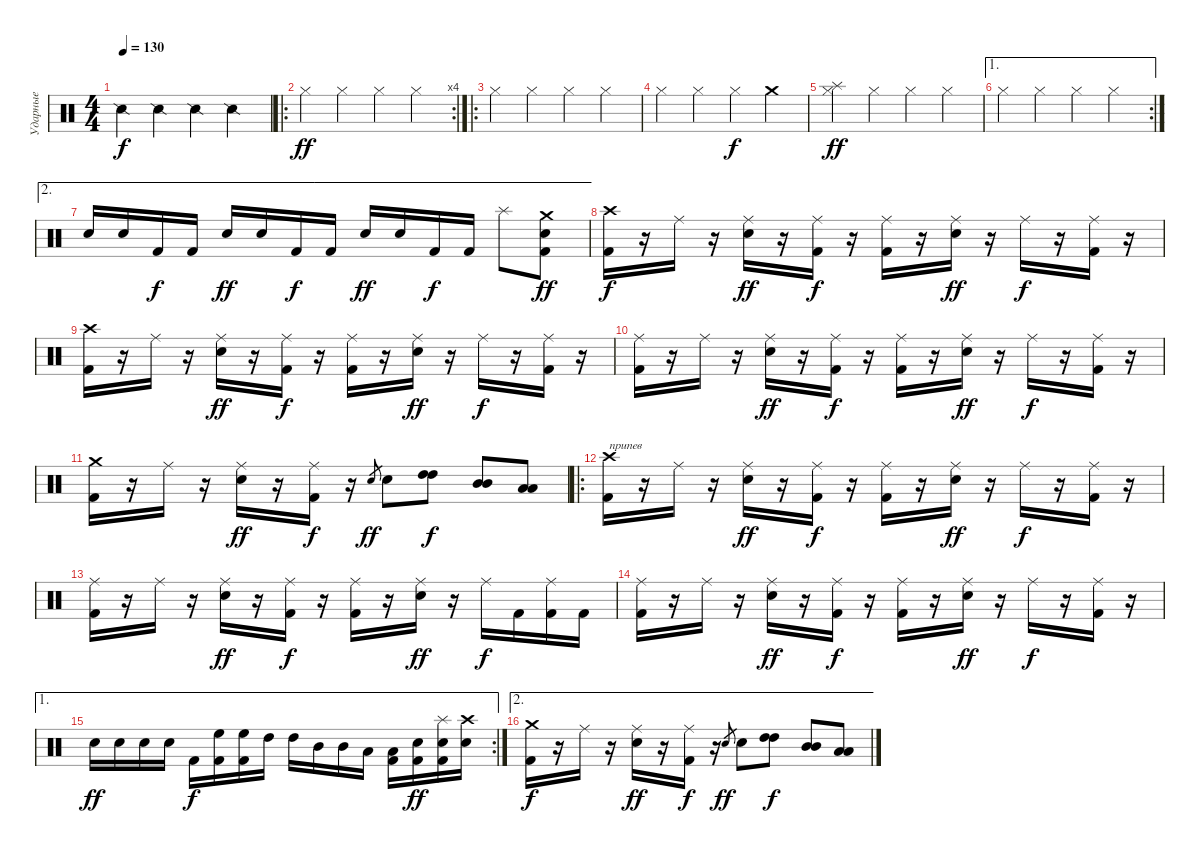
\track ("Ударные" "Ударные") {instrument percussion}
\staff {score}
\articulation defaults
\ts (4 4)
\tempo 130
\clef neutral
\ks c "Snare (side stick) 2".4{dy f} "Snare (side stick) 2".4 "Snare (side stick) 2".4 "Snare (side stick) 2".4
|
\ro
\rc 4 "Hi-Hat (closed)".4{dy ff} "Hi-Hat (closed)".4 "Hi-Hat (closed)".4 "Hi-Hat (closed)".4
|
\ro "Hi-Hat (closed)".4 "Hi-Hat (closed)".4 "Hi-Hat (closed)".4 "Hi-Hat (closed)".4
|
"Hi-Hat (closed)".4 "Hi-Hat (closed)".4 "Hi-Hat (closed)".4{dy f} "Crash medium (hit)".4 |
("Hi-Hat (closed)" "Splash (hit)").4{dy ff} "Hi-Hat (closed)".4 "Hi-Hat (closed)".4 "Hi-Hat (closed)".4 |
\ae 1
\rc 2 "Hi-Hat (closed)".4 "Hi-Hat (closed)".4 "Hi-Hat (closed)".4 "Hi-Hat (closed)".4
|
\ae 2 "Electric Snare (hit)".16 "Electric Snare (hit)".16 "Kick (hit) 2".16{dy f} "Kick (hit) 2".16 "Electric Snare (hit)".16{dy ff} "Electric Snare (hit)".16 "Kick (hit) 2".16{dy f} "Kick (hit) 2".16 "Electric Snare (hit)".16{dy ff} "Electric Snare (hit)".16 "Kick (hit) 2".16{dy f} "Kick (hit) 2".16 "Splash (hit)".8
("Electric Snare (hit)" "Kick (hit) 2" "Crash medium (hit)").8{dy ff} |
("Kick (hit) 2" "Crash high (hit)").16{dy f} r.16 "Ride (middle)".16 r.16 ("Electric Snare (hit)" "Ride (middle)").16{dy ff} r.16 ("Kick (hit) 2" "Ride (middle)").16{dy f} r.16 ("Kick (hit) 2" "Ride (middle)").16 r.16 ("Electric Snare (hit)" "Ride (middle)").16{dy ff} r.16 "Ride (middle)".16{dy f} r.16 ("Kick (hit) 2" "Ride (middle)").16 r.16 |
("Kick (hit) 2" "Crash high (hit)").16 r.16 "Ride (middle)".16 r.16 ("Electric Snare (hit)" "Ride (middle)").16{dy ff} r.16 ("Kick (hit) 2" "Ride (middle)").16{dy f} r.16 ("Kick (hit) 2" "Ride (middle)").16 r.16 ("Electric Snare (hit)" "Ride (middle)").16{dy ff} r.16 "Ride (middle)".16{dy f} r.16 ("Kick (hit) 2" "Ride (middle)").16 r.16 |
("Kick (hit) 2" "Ride (middle)").16 r.16 "Ride (middle)".16 r.16 ("Electric Snare (hit)" "Ride (middle)").16{dy ff} r.16 ("Kick (hit) 2" "Ride (middle)").16{dy f} r.16 ("Kick (hit) 2" "Ride (middle)").16 r.16 ("Electric Snare (hit)" "Ride (middle)").16{dy ff} r.16 "Ride (middle)".16{dy f} r.16 ("Kick (hit) 2" "Ride (middle)").16 r.16 |
("Kick (hit) 2" "Crash medium (hit)").16 r.16 "Ride (middle)".16 r.16 ("Electric Snare (hit)" "Ride (middle)").16{dy ff} r.16 ("Kick (hit) 2" "Ride (middle)").16{dy f} r.16 "Electric Snare (hit)".8{gr dy ff} "Electric Snare (hit)".8 ("High Tom (hit)" "High Tom (hit)").8{dy f} ("Mid Tom (hit)" "Mid Tom (hit)").8 ("Low Tom (hit)" "Low Tom (hit)").8 |
\ro
("Kick (hit) 2" "Crash high (hit)").16{txt "припев"} r.16 "Ride (middle)".16 r.16 ("Electric Snare (hit)" "Ride (middle)").16{dy ff} r.16 ("Kick (hit) 2" "Ride (middle)").16{dy f} r.16 ("Kick (hit) 2" "Ride (middle)").16 r.16 ("Electric Snare (hit)" "Ride (middle)").16{dy ff} r.16 "Ride (middle)".16{dy f} r.16 ("Kick (hit) 2" "Ride (middle)").16 r.16 |
("Kick (hit) 2" "Ride (middle)").16 r.16 "Ride (middle)".16 r.16 ("Electric Snare (hit)" "Ride (middle)").16{dy ff} r.16 ("Kick (hit) 2" "Ride (middle)").16{dy f} r.16 ("Kick (hit) 2" "Ride (middle)").16 r.16 ("Electric Snare (hit)" "Ride (middle)").16{dy ff} r.16 "Ride (middle)".16{dy f} "Kick (hit) 2".16 ("Kick (hit) 2" "Ride (middle)").16 "Kick (hit) 2".16 |
("Kick (hit) 2" "Ride (middle)").16 r.16 "Ride (middle)".16 r.16 ("Electric Snare (hit)" "Ride (middle)").16{dy ff} r.16 ("Kick (hit) 2" "Ride (middle)").16{dy f} r.16 ("Kick (hit) 2" "Ride (middle)").16 r.16 ("Electric Snare (hit)" "Ride (middle)").16{dy ff} r.16 "Ride (middle)".16{dy f} r.16 ("Kick (hit) 2" "Ride (middle)").16 r.16 |
\ae 1
\rc 2 "Electric Snare (hit)".16{dy ff} "Electric Snare (hit)".16 "Electric Snare (hit)".16 "Electric Snare (hit)".16 "Kick (hit) 2".16{dy f}
("High Floor Tom (hit)" "Kick (hit) 2").16 ("High Floor Tom (hit)" "Kick (hit) 2").16 "High Tom (hit)".16 "High Tom (hit)".16 "Mid Tom (hit)".16 "Mid Tom (hit)".16 "Low Tom (hit)".16 ("Low Tom (hit)" "Kick (hit) 2").16 ("Electric Snare (hit)" "Kick (hit) 2").16{dy ff} ("Electric Snare (hit)" "Kick (hit) 2" "Splash (hit)").16 ("Electric Snare (hit)" "Crash high (hit)").16 |
\ae 2
("Kick (hit) 2" "Crash medium (hit)").16{dy f} r.16 "Ride (middle)".16 r.16 ("Electric Snare (hit)" "Ride (middle)").16{dy ff} r.16 ("Kick (hit) 2" "Ride (middle)").16{dy f} r.16 "Electric Snare (hit)".8{gr dy ff} "Electric Snare (hit)".8 ("High Tom (hit)" "High Tom (hit)").8{dy f} ("Mid Tom (hit)" "Mid Tom (hit)").8 ("Low Tom (hit)" "Low Tom (hit)").8
